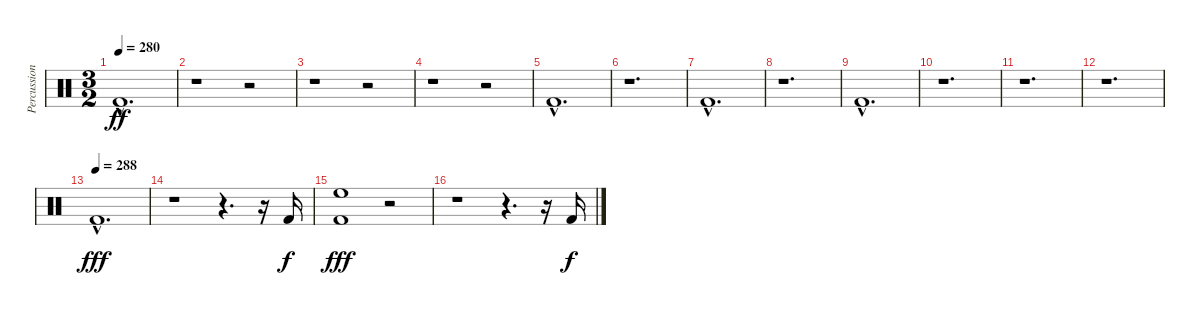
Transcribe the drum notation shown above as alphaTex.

\track ("Percussion" "Percussion") {instrument percussion}
\staff {score}
\articulation defaults
\ts (3 2)
\tempo 280
\clef neutral
\ks c "Kick (hit) 2"{hac}.1{d dy ff}
|
r.1 r.2 |
r.1 r.2 |
r.1 r.2 |
"Kick (hit) 2"{hac}.1{d} |
r.1{d} |
"Kick (hit) 2"{hac}.1{d} |
r.1{d} |
"Kick (hit) 2"{hac}.1{d} |
r.1{d} |
r.1{d} |
r.1{d} |
\tempo (288)
"Kick (hit) 2"{hac}.1{d dy fff} |
r.1 r.4{d} r.16 "Kick (hit) 2".16{dy f} |
("Kick (hit) 2" "High Floor Tom (hit)").1{dy fff} r.2 |
r.1 r.4{d} r.16 "Kick (hit) 2".16{dy f}
